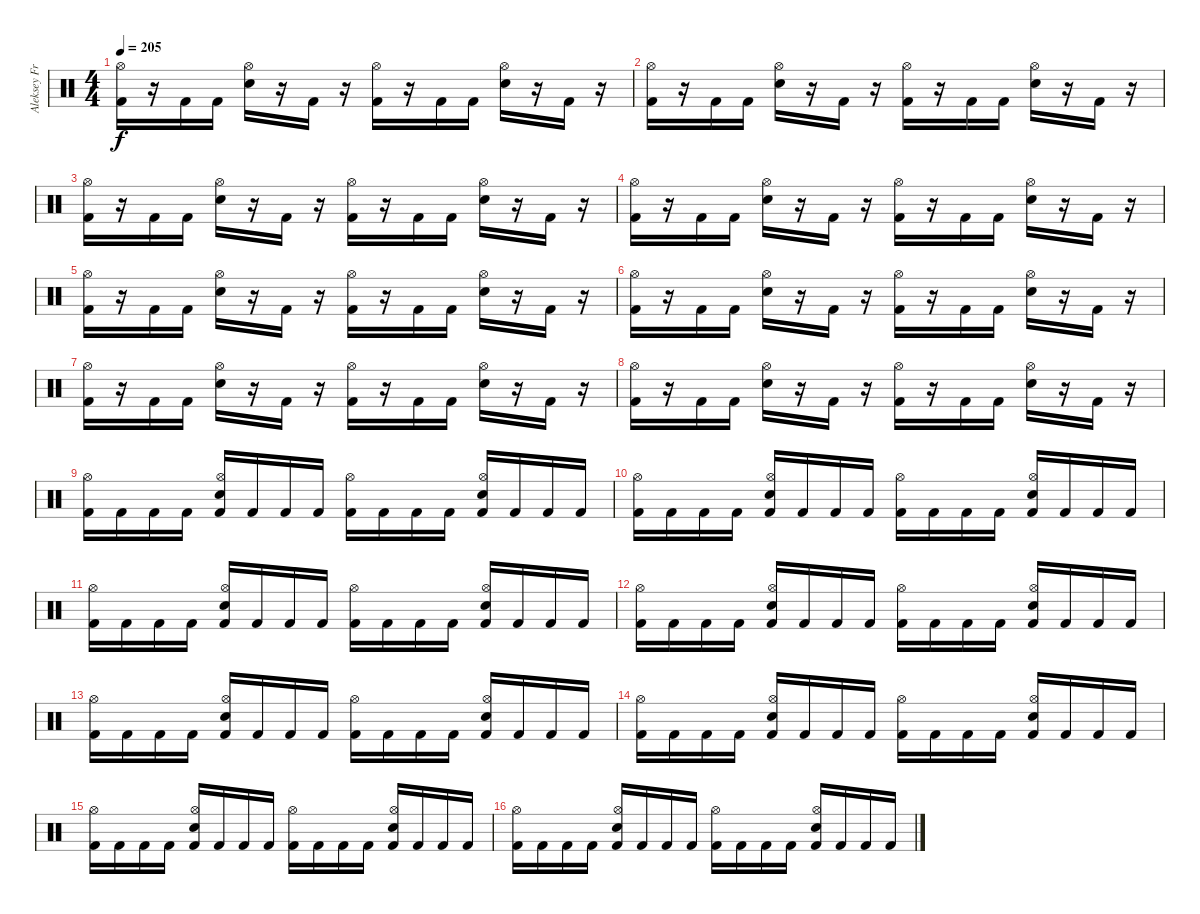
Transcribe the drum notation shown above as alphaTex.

\track ("Aleksey Frolov" "Aleksey Fr") {instrument percussion}
\staff {score}
\articulation defaults
\ts (4 4)
\tempo 205
\clef neutral
\ks c
("Kick (hit) 2" "Hi-Hat (open)").16{dy f} r.16 "Kick (hit) 2".16 "Kick (hit) 2".16 ("Electric Snare (hit)" "Hi-Hat (open)").16 r.16 "Kick (hit) 2".16 r.16 ("Kick (hit) 2" "Hi-Hat (open)").16 r.16 "Kick (hit) 2".16 "Kick (hit) 2".16 ("Electric Snare (hit)" "Hi-Hat (open)").16 r.16 "Kick (hit) 2".16 r.16 |
("Kick (hit) 2" "Hi-Hat (open)").16 r.16 "Kick (hit) 2".16 "Kick (hit) 2".16 ("Electric Snare (hit)" "Hi-Hat (open)").16 r.16 "Kick (hit) 2".16 r.16 ("Kick (hit) 2" "Hi-Hat (open)").16 r.16 "Kick (hit) 2".16 "Kick (hit) 2".16 ("Electric Snare (hit)" "Hi-Hat (open)").16 r.16 "Kick (hit) 2".16 r.16 |
("Kick (hit) 2" "Hi-Hat (open)").16 r.16 "Kick (hit) 2".16 "Kick (hit) 2".16 ("Electric Snare (hit)" "Hi-Hat (open)").16 r.16 "Kick (hit) 2".16 r.16 ("Kick (hit) 2" "Hi-Hat (open)").16 r.16 "Kick (hit) 2".16 "Kick (hit) 2".16 ("Electric Snare (hit)" "Hi-Hat (open)").16 r.16 "Kick (hit) 2".16 r.16 |
("Kick (hit) 2" "Hi-Hat (open)").16 r.16 "Kick (hit) 2".16 "Kick (hit) 2".16 ("Electric Snare (hit)" "Hi-Hat (open)").16 r.16 "Kick (hit) 2".16 r.16 ("Kick (hit) 2" "Hi-Hat (open)").16 r.16 "Kick (hit) 2".16 "Kick (hit) 2".16 ("Electric Snare (hit)" "Hi-Hat (open)").16 r.16 "Kick (hit) 2".16 r.16 |
("Kick (hit) 2" "Hi-Hat (open)").16 r.16 "Kick (hit) 2".16 "Kick (hit) 2".16 ("Electric Snare (hit)" "Hi-Hat (open)").16 r.16 "Kick (hit) 2".16 r.16 ("Kick (hit) 2" "Hi-Hat (open)").16 r.16 "Kick (hit) 2".16 "Kick (hit) 2".16 ("Electric Snare (hit)" "Hi-Hat (open)").16 r.16 "Kick (hit) 2".16 r.16 |
("Kick (hit) 2" "Hi-Hat (open)").16 r.16 "Kick (hit) 2".16 "Kick (hit) 2".16 ("Electric Snare (hit)" "Hi-Hat (open)").16 r.16 "Kick (hit) 2".16 r.16 ("Kick (hit) 2" "Hi-Hat (open)").16 r.16 "Kick (hit) 2".16 "Kick (hit) 2".16 ("Electric Snare (hit)" "Hi-Hat (open)").16 r.16 "Kick (hit) 2".16 r.16 |
("Kick (hit) 2" "Hi-Hat (open)").16 r.16 "Kick (hit) 2".16 "Kick (hit) 2".16 ("Electric Snare (hit)" "Hi-Hat (open)").16 r.16 "Kick (hit) 2".16 r.16 ("Kick (hit) 2" "Hi-Hat (open)").16 r.16 "Kick (hit) 2".16 "Kick (hit) 2".16 ("Electric Snare (hit)" "Hi-Hat (open)").16 r.16 "Kick (hit) 2".16 r.16 |
("Kick (hit) 2" "Hi-Hat (open)").16 r.16 "Kick (hit) 2".16 "Kick (hit) 2".16 ("Electric Snare (hit)" "Hi-Hat (open)").16 r.16 "Kick (hit) 2".16 r.16 ("Kick (hit) 2" "Hi-Hat (open)").16 r.16 "Kick (hit) 2".16 "Kick (hit) 2".16 ("Electric Snare (hit)" "Hi-Hat (open)").16 r.16 "Kick (hit) 2".16 r.16 |
("Kick (hit) 2" "Hi-Hat (open)").16 "Kick (hit) 2".16 "Kick (hit) 2".16 "Kick (hit) 2".16 ("Kick (hit) 2" "Electric Snare (hit)" "Hi-Hat (open)").16 "Kick (hit) 2".16 "Kick (hit) 2".16 "Kick (hit) 2".16 ("Kick (hit) 2" "Hi-Hat (open)").16 "Kick (hit) 2".16 "Kick (hit) 2".16 "Kick (hit) 2".16 ("Kick (hit) 2" "Electric Snare (hit)" "Hi-Hat (open)").16 "Kick (hit) 2".16 "Kick (hit) 2".16 "Kick (hit) 2".16 |
("Kick (hit) 2" "Hi-Hat (open)").16 "Kick (hit) 2".16 "Kick (hit) 2".16 "Kick (hit) 2".16 ("Kick (hit) 2" "Electric Snare (hit)" "Hi-Hat (open)").16 "Kick (hit) 2".16 "Kick (hit) 2".16 "Kick (hit) 2".16 ("Kick (hit) 2" "Hi-Hat (open)").16 "Kick (hit) 2".16 "Kick (hit) 2".16 "Kick (hit) 2".16 ("Kick (hit) 2" "Electric Snare (hit)" "Hi-Hat (open)").16 "Kick (hit) 2".16 "Kick (hit) 2".16 "Kick (hit) 2".16 |
("Kick (hit) 2" "Hi-Hat (open)").16 "Kick (hit) 2".16 "Kick (hit) 2".16 "Kick (hit) 2".16 ("Kick (hit) 2" "Electric Snare (hit)" "Hi-Hat (open)").16 "Kick (hit) 2".16 "Kick (hit) 2".16 "Kick (hit) 2".16 ("Kick (hit) 2" "Hi-Hat (open)").16 "Kick (hit) 2".16 "Kick (hit) 2".16 "Kick (hit) 2".16 ("Kick (hit) 2" "Electric Snare (hit)" "Hi-Hat (open)").16 "Kick (hit) 2".16 "Kick (hit) 2".16 "Kick (hit) 2".16 |
("Kick (hit) 2" "Hi-Hat (open)").16 "Kick (hit) 2".16 "Kick (hit) 2".16 "Kick (hit) 2".16 ("Kick (hit) 2" "Electric Snare (hit)" "Hi-Hat (open)").16 "Kick (hit) 2".16 "Kick (hit) 2".16 "Kick (hit) 2".16 ("Kick (hit) 2" "Hi-Hat (open)").16 "Kick (hit) 2".16 "Kick (hit) 2".16 "Kick (hit) 2".16 ("Kick (hit) 2" "Electric Snare (hit)" "Hi-Hat (open)").16 "Kick (hit) 2".16 "Kick (hit) 2".16 "Kick (hit) 2".16 |
("Kick (hit) 2" "Hi-Hat (open)").16 "Kick (hit) 2".16 "Kick (hit) 2".16 "Kick (hit) 2".16 ("Kick (hit) 2" "Electric Snare (hit)" "Hi-Hat (open)").16 "Kick (hit) 2".16 "Kick (hit) 2".16 "Kick (hit) 2".16 ("Kick (hit) 2" "Hi-Hat (open)").16 "Kick (hit) 2".16 "Kick (hit) 2".16 "Kick (hit) 2".16 ("Kick (hit) 2" "Electric Snare (hit)" "Hi-Hat (open)").16 "Kick (hit) 2".16 "Kick (hit) 2".16 "Kick (hit) 2".16 |
("Kick (hit) 2" "Hi-Hat (open)").16 "Kick (hit) 2".16 "Kick (hit) 2".16 "Kick (hit) 2".16 ("Kick (hit) 2" "Electric Snare (hit)" "Hi-Hat (open)").16 "Kick (hit) 2".16 "Kick (hit) 2".16 "Kick (hit) 2".16 ("Kick (hit) 2" "Hi-Hat (open)").16 "Kick (hit) 2".16 "Kick (hit) 2".16 "Kick (hit) 2".16 ("Kick (hit) 2" "Electric Snare (hit)" "Hi-Hat (open)").16 "Kick (hit) 2".16 "Kick (hit) 2".16 "Kick (hit) 2".16 |
("Kick (hit) 2" "Hi-Hat (open)").16 "Kick (hit) 2".16 "Kick (hit) 2".16 "Kick (hit) 2".16 ("Kick (hit) 2" "Electric Snare (hit)" "Hi-Hat (open)").16 "Kick (hit) 2".16 "Kick (hit) 2".16 "Kick (hit) 2".16 ("Kick (hit) 2" "Hi-Hat (open)").16 "Kick (hit) 2".16 "Kick (hit) 2".16 "Kick (hit) 2".16 ("Kick (hit) 2" "Electric Snare (hit)" "Hi-Hat (open)").16 "Kick (hit) 2".16 "Kick (hit) 2".16 "Kick (hit) 2".16 |
("Kick (hit) 2" "Hi-Hat (open)").16 "Kick (hit) 2".16 "Kick (hit) 2".16 "Kick (hit) 2".16 ("Kick (hit) 2" "Electric Snare (hit)" "Hi-Hat (open)").16 "Kick (hit) 2".16 "Kick (hit) 2".16 "Kick (hit) 2".16 ("Kick (hit) 2" "Hi-Hat (open)").16 "Kick (hit) 2".16 "Kick (hit) 2".16 "Kick (hit) 2".16 ("Kick (hit) 2" "Electric Snare (hit)" "Hi-Hat (open)").16 "Kick (hit) 2".16 "Kick (hit) 2".16 "Kick (hit) 2".16
